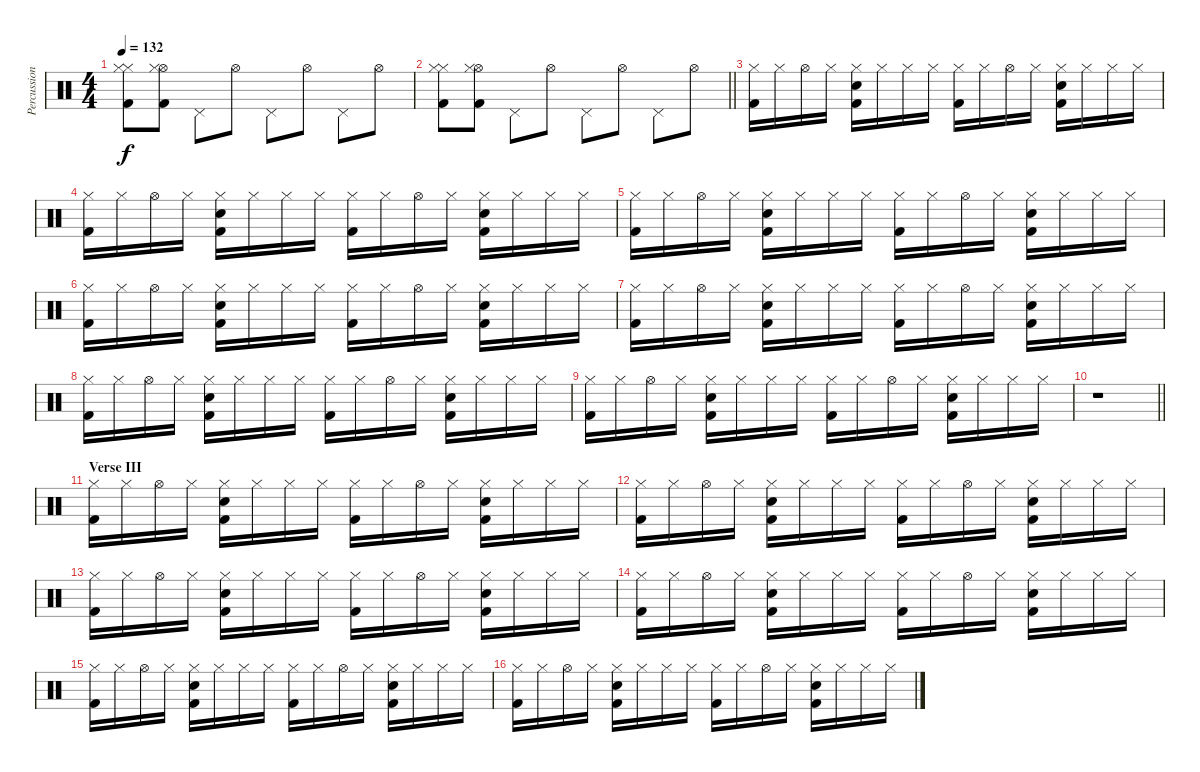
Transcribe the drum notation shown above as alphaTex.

\track ("Percussion I" "Percussion") {instrument percussion}
\staff {score}
\articulation defaults
\ts (4 4)
\tempo 132
\clef neutral
\ks c
("Hi-Hat (closed)" "Hi-Hat (closed)" "Kick (hit) 2").8{dy f} ("Hi-Hat (open)" "Hi-Hat (closed)" "Kick (hit) 2").8 "Pedal Hi-Hat (hit)".8 "Hi-Hat (open)".8 "Pedal Hi-Hat (hit)".8 "Hi-Hat (open)".8 "Pedal Hi-Hat (hit)".8 "Hi-Hat (open)".8 |
\barLineRight lightlight
("Hi-Hat (closed)" "Hi-Hat (closed)" "Kick (hit) 2").8 ("Hi-Hat (open)" "Hi-Hat (closed)" "Kick (hit) 2").8 "Pedal Hi-Hat (hit)".8 "Hi-Hat (open)".8 "Pedal Hi-Hat (hit)".8 "Hi-Hat (open)".8 "Pedal Hi-Hat (hit)".8 "Hi-Hat (open)".8 |
\section ("" "")
("Hi-Hat (closed)" "Kick (hit) 2").16 "Hi-Hat (closed)".16 "Hi-Hat (open)".16 "Hi-Hat (closed)".16 ("Hi-Hat (closed)" "Hand Clap (hit)" "Kick (hit) 2").16 "Hi-Hat (closed)".16 "Hi-Hat (closed)".16 "Hi-Hat (closed)".16 ("Hi-Hat (closed)" "Kick (hit) 2").16 "Hi-Hat (closed)".16 "Hi-Hat (open)".16 "Hi-Hat (closed)".16 ("Hi-Hat (closed)" "Hand Clap (hit)" "Kick (hit) 2").16 "Hi-Hat (closed)".16 "Hi-Hat (closed)".16 "Hi-Hat (closed)".16 |
("Hi-Hat (closed)" "Kick (hit) 2").16 "Hi-Hat (closed)".16 "Hi-Hat (open)".16 "Hi-Hat (closed)".16 ("Hi-Hat (closed)" "Hand Clap (hit)" "Kick (hit) 2").16 "Hi-Hat (closed)".16 "Hi-Hat (closed)".16 "Hi-Hat (closed)".16 ("Hi-Hat (closed)" "Kick (hit) 2").16 "Hi-Hat (closed)".16 "Hi-Hat (open)".16 "Hi-Hat (closed)".16 ("Hi-Hat (closed)" "Hand Clap (hit)" "Kick (hit) 2").16 "Hi-Hat (closed)".16 "Hi-Hat (closed)".16 "Hi-Hat (closed)".16 |
("Hi-Hat (closed)" "Kick (hit) 2").16 "Hi-Hat (closed)".16 "Hi-Hat (open)".16 "Hi-Hat (closed)".16 ("Hi-Hat (closed)" "Hand Clap (hit)" "Kick (hit) 2").16 "Hi-Hat (closed)".16 "Hi-Hat (closed)".16 "Hi-Hat (closed)".16 ("Hi-Hat (closed)" "Kick (hit) 2").16 "Hi-Hat (closed)".16 "Hi-Hat (open)".16 "Hi-Hat (closed)".16 ("Hi-Hat (closed)" "Hand Clap (hit)" "Kick (hit) 2").16 "Hi-Hat (closed)".16 "Hi-Hat (closed)".16 "Hi-Hat (closed)".16 |
("Hi-Hat (closed)" "Kick (hit) 2").16 "Hi-Hat (closed)".16 "Hi-Hat (open)".16 "Hi-Hat (closed)".16 ("Hi-Hat (closed)" "Hand Clap (hit)" "Kick (hit) 2").16 "Hi-Hat (closed)".16 "Hi-Hat (closed)".16 "Hi-Hat (closed)".16 ("Hi-Hat (closed)" "Kick (hit) 2").16 "Hi-Hat (closed)".16 "Hi-Hat (open)".16 "Hi-Hat (closed)".16 ("Hi-Hat (closed)" "Hand Clap (hit)" "Kick (hit) 2").16 "Hi-Hat (closed)".16 "Hi-Hat (closed)".16 "Hi-Hat (closed)".16 |
("Hi-Hat (closed)" "Kick (hit) 2").16 "Hi-Hat (closed)".16 "Hi-Hat (open)".16 "Hi-Hat (closed)".16 ("Hi-Hat (closed)" "Hand Clap (hit)" "Kick (hit) 2").16 "Hi-Hat (closed)".16 "Hi-Hat (closed)".16 "Hi-Hat (closed)".16 ("Hi-Hat (closed)" "Kick (hit) 2").16 "Hi-Hat (closed)".16 "Hi-Hat (open)".16 "Hi-Hat (closed)".16 ("Hi-Hat (closed)" "Hand Clap (hit)" "Kick (hit) 2").16 "Hi-Hat (closed)".16 "Hi-Hat (closed)".16 "Hi-Hat (closed)".16 |
("Hi-Hat (closed)" "Kick (hit) 2").16 "Hi-Hat (closed)".16 "Hi-Hat (open)".16 "Hi-Hat (closed)".16 ("Hi-Hat (closed)" "Hand Clap (hit)" "Kick (hit) 2").16 "Hi-Hat (closed)".16 "Hi-Hat (closed)".16 "Hi-Hat (closed)".16 ("Hi-Hat (closed)" "Kick (hit) 2").16 "Hi-Hat (closed)".16 "Hi-Hat (open)".16 "Hi-Hat (closed)".16 ("Hi-Hat (closed)" "Hand Clap (hit)" "Kick (hit) 2").16 "Hi-Hat (closed)".16 "Hi-Hat (closed)".16 "Hi-Hat (closed)".16 |
("Hi-Hat (closed)" "Kick (hit) 2").16 "Hi-Hat (closed)".16 "Hi-Hat (open)".16 "Hi-Hat (closed)".16 ("Hi-Hat (closed)" "Hand Clap (hit)" "Kick (hit) 2").16 "Hi-Hat (closed)".16 "Hi-Hat (closed)".16 "Hi-Hat (closed)".16 ("Hi-Hat (closed)" "Kick (hit) 2").16 "Hi-Hat (closed)".16 "Hi-Hat (open)".16 "Hi-Hat (closed)".16 ("Hi-Hat (closed)" "Hand Clap (hit)" "Kick (hit) 2").16 "Hi-Hat (closed)".16 "Hi-Hat (closed)".16 "Hi-Hat (closed)".16 |
\barLineRight lightlight
r.1 |
\section ("" "Verse III")
("Hi-Hat (closed)" "Kick (hit) 2").16 "Hi-Hat (closed)".16 "Hi-Hat (open)".16 "Hi-Hat (closed)".16 ("Hi-Hat (closed)" "Hand Clap (hit)" "Kick (hit) 2").16 "Hi-Hat (closed)".16 "Hi-Hat (closed)".16 "Hi-Hat (closed)".16 ("Hi-Hat (closed)" "Kick (hit) 2").16 "Hi-Hat (closed)".16 "Hi-Hat (open)".16 "Hi-Hat (closed)".16 ("Hi-Hat (closed)" "Hand Clap (hit)" "Kick (hit) 2").16 "Hi-Hat (closed)".16 "Hi-Hat (closed)".16 "Hi-Hat (closed)".16 |
("Hi-Hat (closed)" "Kick (hit) 2").16 "Hi-Hat (closed)".16 "Hi-Hat (open)".16 "Hi-Hat (closed)".16 ("Hi-Hat (closed)" "Hand Clap (hit)" "Kick (hit) 2").16 "Hi-Hat (closed)".16 "Hi-Hat (closed)".16 "Hi-Hat (closed)".16 ("Hi-Hat (closed)" "Kick (hit) 2").16 "Hi-Hat (closed)".16 "Hi-Hat (open)".16 "Hi-Hat (closed)".16 ("Hi-Hat (closed)" "Hand Clap (hit)" "Kick (hit) 2").16 "Hi-Hat (closed)".16 "Hi-Hat (closed)".16 "Hi-Hat (closed)".16 |
("Hi-Hat (closed)" "Kick (hit) 2").16 "Hi-Hat (closed)".16 "Hi-Hat (open)".16 "Hi-Hat (closed)".16 ("Hi-Hat (closed)" "Hand Clap (hit)" "Kick (hit) 2").16 "Hi-Hat (closed)".16 "Hi-Hat (closed)".16 "Hi-Hat (closed)".16 ("Hi-Hat (closed)" "Kick (hit) 2").16 "Hi-Hat (closed)".16 "Hi-Hat (open)".16 "Hi-Hat (closed)".16 ("Hi-Hat (closed)" "Hand Clap (hit)" "Kick (hit) 2").16 "Hi-Hat (closed)".16 "Hi-Hat (closed)".16 "Hi-Hat (closed)".16 |
("Hi-Hat (closed)" "Kick (hit) 2").16 "Hi-Hat (closed)".16 "Hi-Hat (open)".16 "Hi-Hat (closed)".16 ("Hi-Hat (closed)" "Hand Clap (hit)" "Kick (hit) 2").16 "Hi-Hat (closed)".16 "Hi-Hat (closed)".16 "Hi-Hat (closed)".16 ("Hi-Hat (closed)" "Kick (hit) 2").16 "Hi-Hat (closed)".16 "Hi-Hat (open)".16 "Hi-Hat (closed)".16 ("Hi-Hat (closed)" "Hand Clap (hit)" "Kick (hit) 2").16 "Hi-Hat (closed)".16 "Hi-Hat (closed)".16 "Hi-Hat (closed)".16 |
("Hi-Hat (closed)" "Kick (hit) 2").16 "Hi-Hat (closed)".16 "Hi-Hat (open)".16 "Hi-Hat (closed)".16 ("Hi-Hat (closed)" "Hand Clap (hit)" "Kick (hit) 2").16 "Hi-Hat (closed)".16 "Hi-Hat (closed)".16 "Hi-Hat (closed)".16 ("Hi-Hat (closed)" "Kick (hit) 2").16 "Hi-Hat (closed)".16 "Hi-Hat (open)".16 "Hi-Hat (closed)".16 ("Hi-Hat (closed)" "Hand Clap (hit)" "Kick (hit) 2").16 "Hi-Hat (closed)".16 "Hi-Hat (closed)".16 "Hi-Hat (closed)".16 |
("Hi-Hat (closed)" "Kick (hit) 2").16 "Hi-Hat (closed)".16 "Hi-Hat (open)".16 "Hi-Hat (closed)".16 ("Hi-Hat (closed)" "Hand Clap (hit)" "Kick (hit) 2").16 "Hi-Hat (closed)".16 "Hi-Hat (closed)".16 "Hi-Hat (closed)".16 ("Hi-Hat (closed)" "Kick (hit) 2").16 "Hi-Hat (closed)".16 "Hi-Hat (open)".16 "Hi-Hat (closed)".16 ("Hi-Hat (closed)" "Hand Clap (hit)" "Kick (hit) 2").16 "Hi-Hat (closed)".16 "Hi-Hat (closed)".16 "Hi-Hat (closed)".16
